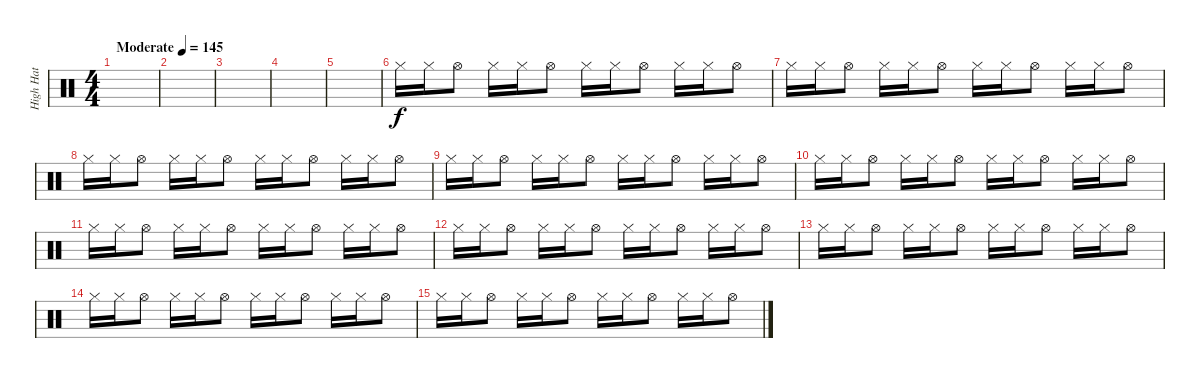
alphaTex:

\track ("High Hat" "High Hat") {instrument percussion}
\staff {score}
\articulation defaults
\ts (4 4)
\tempo (145 "Moderate")
\clef neutral
\ks c
|
|
|
|
|
"Hi-Hat (closed)".16 "Hi-Hat (closed)".16 "Hi-Hat (open)".8 "Hi-Hat (closed)".16 "Hi-Hat (closed)".16 "Hi-Hat (open)".8 "Hi-Hat (closed)".16 "Hi-Hat (closed)".16 "Hi-Hat (open)".8 "Hi-Hat (closed)".16 "Hi-Hat (closed)".16 "Hi-Hat (open)".8 |
"Hi-Hat (closed)".16 "Hi-Hat (closed)".16 "Hi-Hat (open)".8 "Hi-Hat (closed)".16 "Hi-Hat (closed)".16 "Hi-Hat (open)".8 "Hi-Hat (closed)".16 "Hi-Hat (closed)".16 "Hi-Hat (open)".8 "Hi-Hat (closed)".16 "Hi-Hat (closed)".16 "Hi-Hat (open)".8 |
"Hi-Hat (closed)".16 "Hi-Hat (closed)".16 "Hi-Hat (open)".8 "Hi-Hat (closed)".16 "Hi-Hat (closed)".16 "Hi-Hat (open)".8 "Hi-Hat (closed)".16 "Hi-Hat (closed)".16 "Hi-Hat (open)".8 "Hi-Hat (closed)".16 "Hi-Hat (closed)".16 "Hi-Hat (open)".8 |
"Hi-Hat (closed)".16 "Hi-Hat (closed)".16 "Hi-Hat (open)".8 "Hi-Hat (closed)".16 "Hi-Hat (closed)".16 "Hi-Hat (open)".8 "Hi-Hat (closed)".16 "Hi-Hat (closed)".16 "Hi-Hat (open)".8 "Hi-Hat (closed)".16 "Hi-Hat (closed)".16 "Hi-Hat (open)".8 |
"Hi-Hat (closed)".16 "Hi-Hat (closed)".16 "Hi-Hat (open)".8 "Hi-Hat (closed)".16 "Hi-Hat (closed)".16 "Hi-Hat (open)".8 "Hi-Hat (closed)".16 "Hi-Hat (closed)".16 "Hi-Hat (open)".8 "Hi-Hat (closed)".16 "Hi-Hat (closed)".16 "Hi-Hat (open)".8 |
"Hi-Hat (closed)".16 "Hi-Hat (closed)".16 "Hi-Hat (open)".8 "Hi-Hat (closed)".16 "Hi-Hat (closed)".16 "Hi-Hat (open)".8 "Hi-Hat (closed)".16 "Hi-Hat (closed)".16 "Hi-Hat (open)".8 "Hi-Hat (closed)".16 "Hi-Hat (closed)".16 "Hi-Hat (open)".8 |
"Hi-Hat (closed)".16 "Hi-Hat (closed)".16 "Hi-Hat (open)".8 "Hi-Hat (closed)".16 "Hi-Hat (closed)".16 "Hi-Hat (open)".8 "Hi-Hat (closed)".16 "Hi-Hat (closed)".16 "Hi-Hat (open)".8 "Hi-Hat (closed)".16 "Hi-Hat (closed)".16 "Hi-Hat (open)".8 |
"Hi-Hat (closed)".16 "Hi-Hat (closed)".16 "Hi-Hat (open)".8 "Hi-Hat (closed)".16 "Hi-Hat (closed)".16 "Hi-Hat (open)".8 "Hi-Hat (closed)".16 "Hi-Hat (closed)".16 "Hi-Hat (open)".8 "Hi-Hat (closed)".16 "Hi-Hat (closed)".16 "Hi-Hat (open)".8 |
"Hi-Hat (closed)".16 "Hi-Hat (closed)".16 "Hi-Hat (open)".8 "Hi-Hat (closed)".16 "Hi-Hat (closed)".16 "Hi-Hat (open)".8 "Hi-Hat (closed)".16 "Hi-Hat (closed)".16 "Hi-Hat (open)".8 "Hi-Hat (closed)".16 "Hi-Hat (closed)".16 "Hi-Hat (open)".8 |
"Hi-Hat (closed)".16 "Hi-Hat (closed)".16 "Hi-Hat (open)".8 "Hi-Hat (closed)".16 "Hi-Hat (closed)".16 "Hi-Hat (open)".8 "Hi-Hat (closed)".16 "Hi-Hat (closed)".16 "Hi-Hat (open)".8 "Hi-Hat (closed)".16 "Hi-Hat (closed)".16 "Hi-Hat (open)".8
